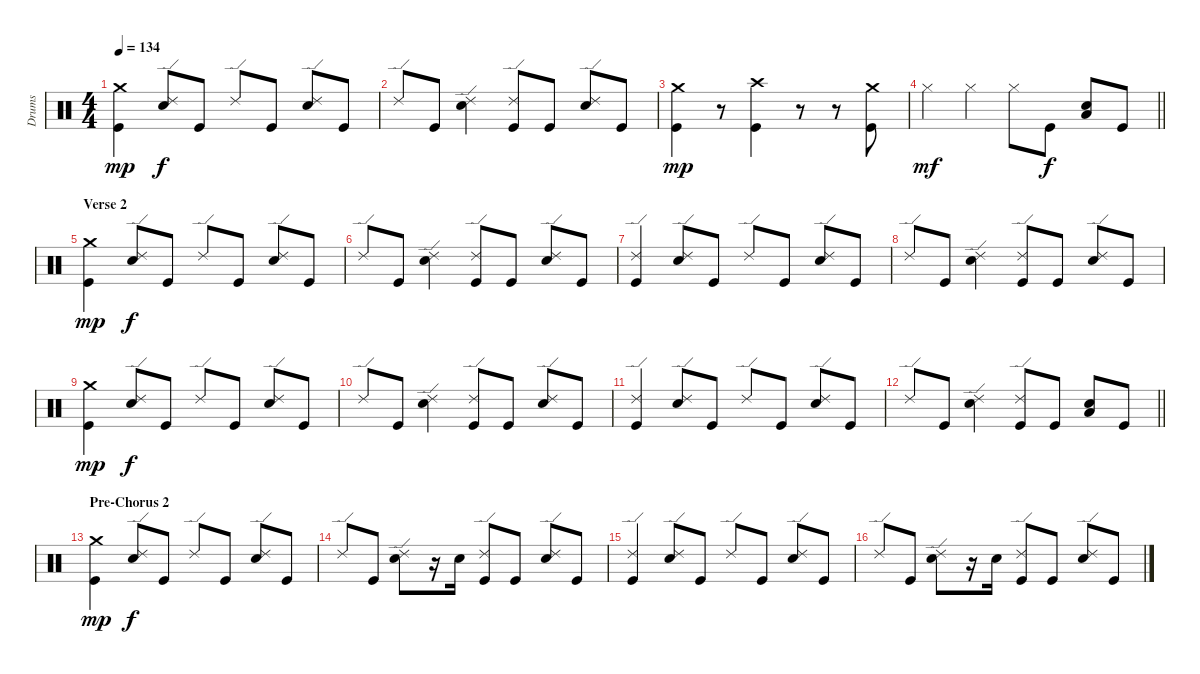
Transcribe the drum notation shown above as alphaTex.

\track ("Drums" "Drums") {instrument percussion}
\staff {score}
\articulation defaults
\ts (4 4)
\tempo 134
\clef neutral
\ks c
("Crash medium (hit)" "Kick (hit)").4{dy mp} ("Ride (edge) 2" "Snare (hit) 2").8{dy f} "Kick (hit)".8 "Ride (edge) 2".8 "Kick (hit)".8 ("Ride (edge) 2" "Snare (hit) 2").8 "Kick (hit)".8 |
"Ride (edge) 2".8 "Kick (hit)".8 ("Ride (edge) 2" "Snare (hit) 2").4 ("Ride (edge) 2" "Kick (hit)").8 "Kick (hit)".8 ("Ride (edge) 2" "Snare (hit) 2").8 "Kick (hit)".8 |
("Crash medium (hit)" "Kick (hit)").4{dy mp} r.8 ("Crash high (hit)" "Kick (hit)").4 r.8 r.8 ("Crash medium (hit)" "Kick (hit)").8 |
\barLineRight lightlight "Hi-Hat (closed)".4{dy mf} "Hi-Hat (closed)".4 "Hi-Hat (closed)".8 "Kick (hit)".8{dy f}
("Snare (hit) 2" "Low Floor Tom (hit)").8 "Kick (hit)".8 |
\section ("" "Verse 2")
("Crash medium (hit)" "Kick (hit)").4{dy mp} ("Ride (edge) 2" "Snare (hit) 2").8{dy f} "Kick (hit)".8 "Ride (edge) 2".8 "Kick (hit)".8 ("Ride (edge) 2" "Snare (hit) 2").8 "Kick (hit)".8 |
"Ride (edge) 2".8 "Kick (hit)".8 ("Ride (edge) 2" "Snare (hit) 2").4 ("Ride (edge) 2" "Kick (hit)").8 "Kick (hit)".8 ("Ride (edge) 2" "Snare (hit) 2").8 "Kick (hit)".8 |
("Ride (edge) 2" "Kick (hit)").4 ("Ride (edge) 2" "Snare (hit) 2").8 "Kick (hit)".8 "Ride (edge) 2".8 "Kick (hit)".8 ("Ride (edge) 2" "Snare (hit) 2").8 "Kick (hit)".8 |
"Ride (edge) 2".8 "Kick (hit)".8 ("Ride (edge) 2" "Snare (hit) 2").4 ("Ride (edge) 2" "Kick (hit)").8 "Kick (hit)".8 ("Ride (edge) 2" "Snare (hit) 2").8 "Kick (hit)".8 |
("Crash medium (hit)" "Kick (hit)").4{dy mp} ("Ride (edge) 2" "Snare (hit) 2").8{dy f} "Kick (hit)".8 "Ride (edge) 2".8 "Kick (hit)".8 ("Ride (edge) 2" "Snare (hit) 2").8 "Kick (hit)".8 |
"Ride (edge) 2".8 "Kick (hit)".8 ("Ride (edge) 2" "Snare (hit) 2").4 ("Ride (edge) 2" "Kick (hit)").8 "Kick (hit)".8 ("Ride (edge) 2" "Snare (hit) 2").8 "Kick (hit)".8 |
("Ride (edge) 2" "Kick (hit)").4 ("Ride (edge) 2" "Snare (hit) 2").8 "Kick (hit)".8 "Ride (edge) 2".8 "Kick (hit)".8 ("Ride (edge) 2" "Snare (hit) 2").8 "Kick (hit)".8 |
\barLineRight lightlight "Ride (edge) 2".8 "Kick (hit)".8
("Ride (edge) 2" "Snare (hit) 2").4 ("Ride (edge) 2" "Kick (hit)").8 "Kick (hit)".8 ("Snare (hit) 2" "Low Floor Tom (hit)").8 "Kick (hit)".8 |
\section ("" "Pre-Chorus 2")
("Crash medium (hit)" "Kick (hit)").4{dy mp} ("Ride (edge) 2" "Snare (hit) 2").8{dy f} "Kick (hit)".8 "Ride (edge) 2".8 "Kick (hit)".8 ("Ride (edge) 2" "Snare (hit) 2").8 "Kick (hit)".8 |
"Ride (edge) 2".8 "Kick (hit)".8 ("Ride (edge) 2" "Snare (hit) 2").8 r.16 "Snare (hit) 2".16 ("Ride (edge) 2" "Kick (hit)").8 "Kick (hit)".8 ("Ride (edge) 2" "Snare (hit) 2").8 "Kick (hit)".8 |
("Ride (edge) 2" "Kick (hit)").4 ("Ride (edge) 2" "Snare (hit) 2").8 "Kick (hit)".8 "Ride (edge) 2".8 "Kick (hit)".8 ("Ride (edge) 2" "Snare (hit) 2").8 "Kick (hit)".8 |
"Ride (edge) 2".8 "Kick (hit)".8 ("Ride (edge) 2" "Snare (hit) 2").8 r.16 "Snare (hit) 2".16 ("Ride (edge) 2" "Kick (hit)").8 "Kick (hit)".8 ("Ride (edge) 2" "Snare (hit) 2").8 "Kick (hit)".8
